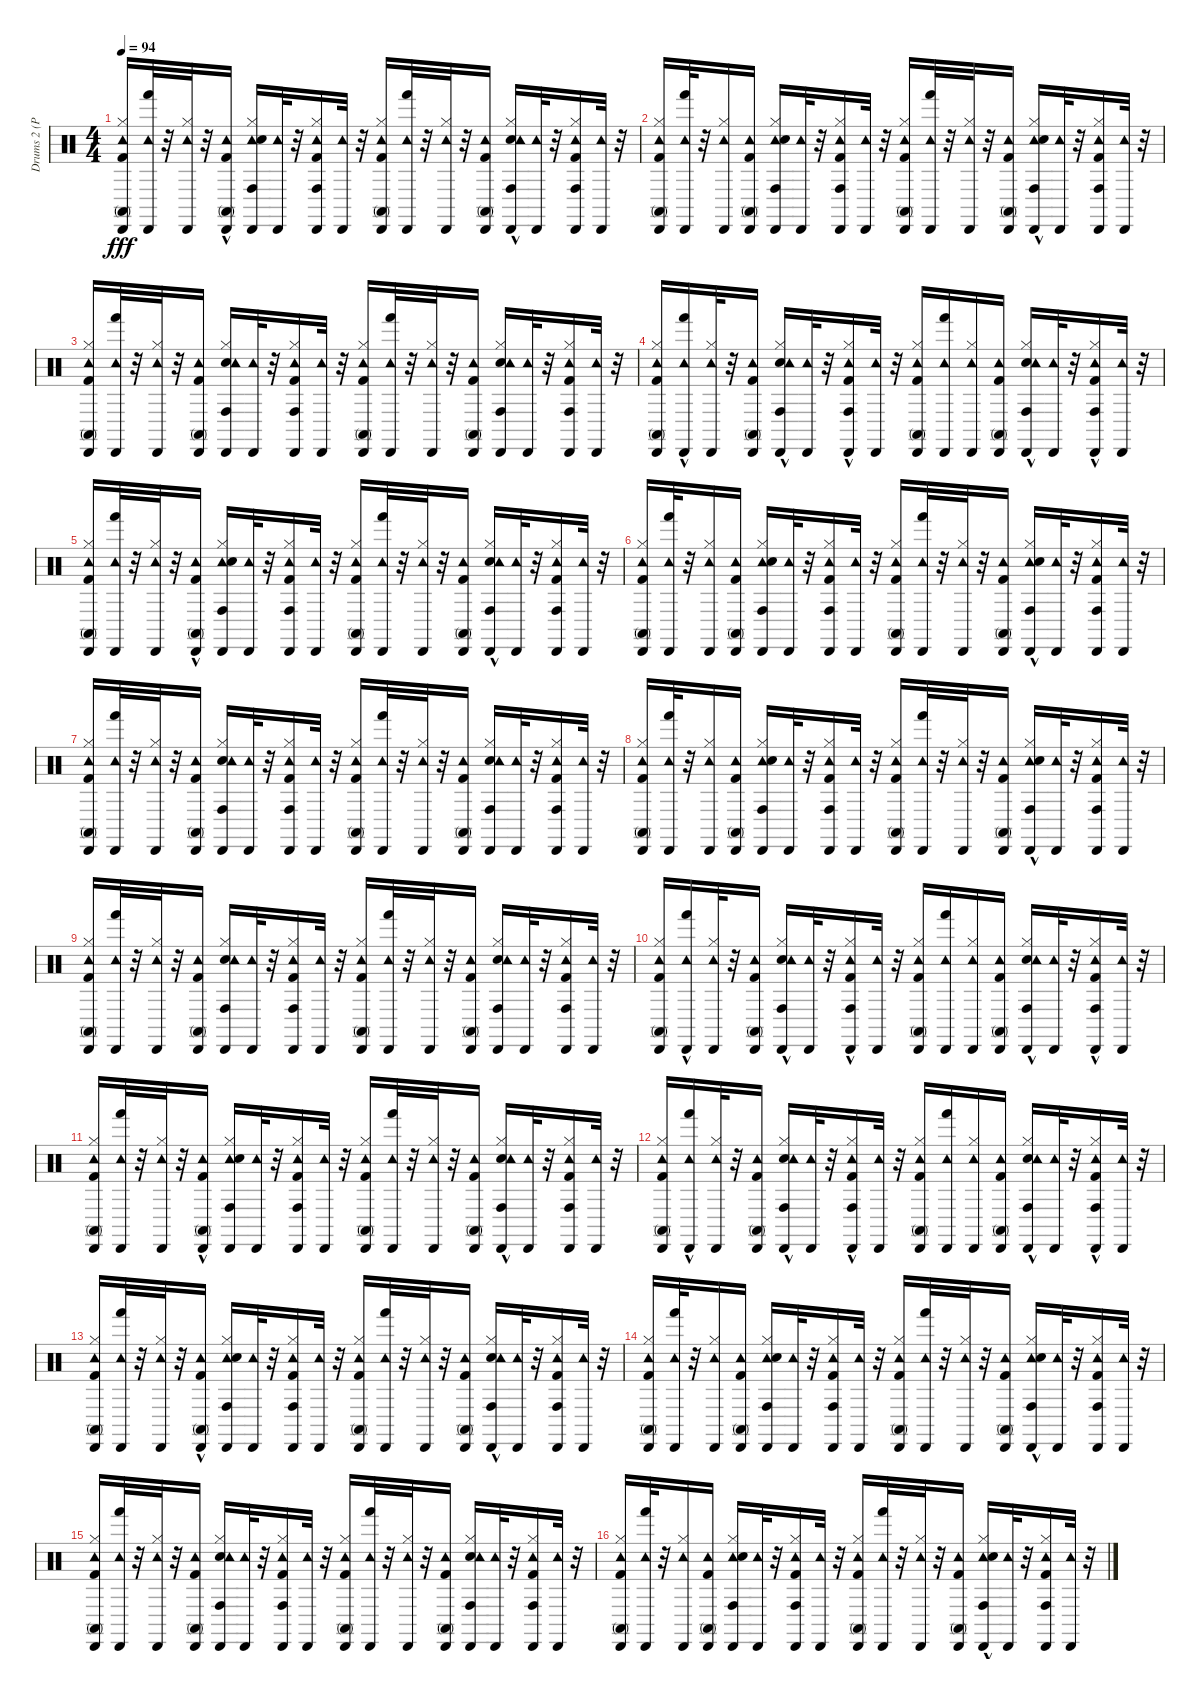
\track ("Drums 2 (Power)" "Drums 2 (P") {instrument percussion}
\staff {score}
\articulation defaults
\ts (4 4)
\tempo 94
\clef neutral
\ks c
("Tambourine (hit)" "Conga high (mute)" "Kick (hit) 2" "Hi-Hat (closed)" "Cabasa (hit)").16{dy fff} ("Tambourine (hit)" "Cabasa (hit)" "Hand (hit)").32 r.32 ("Tambourine (hit)" "Cabasa (hit)" "Hi-Hat (closed)").32 r.32 ("Tambourine (hit)" "Conga high (mute)"{hac} "Cabasa (hit)" "Kick (hit) 2").16 ("Tambourine (hit)" "Cabasa (hit)" "Hi-Hat (closed)" "Snare (hit) 2" "Conga high (hit)").16 ("Tambourine (hit)" "Cabasa (hit)").32 r.32 ("Hi-Hat (closed)" "Kick (hit) 2" "Cabasa (hit)" "Conga high (hit)" "Tambourine (hit)").16 ("Cabasa (hit)" "Tambourine (hit)").32 r.32 ("Cabasa (hit)" "Hi-Hat (closed)" "Kick (hit) 2" "Conga high (mute)" "Tambourine (hit)").16 ("Cabasa (hit)" "Hand (hit)" "Tambourine (hit)").32 r.32 ("Tambourine (hit)" "Cabasa (hit)" "Hi-Hat (closed)").32 r.32 ("Cabasa (hit)" "Kick (hit) 2" "Conga high (mute)" "Tambourine (hit)").16 ("Hi-Hat (closed)" "Snare (hit) 2"{hac} "Cabasa (hit)" "Conga high (hit)" "Tambourine (hit)").16 ("Tambourine (hit)" "Cabasa (hit)").32 r.32 ("Kick (hit) 2" "Hi-Hat (closed)" "Cabasa (hit)" "Conga high (hit)" "Tambourine (hit)").16 ("Cabasa (hit)" "Tambourine (hit)").32 r.32 |
("Kick (hit) 2" "Hi-Hat (closed)" "Conga high (mute)" "Cabasa (hit)" "Tambourine (hit)").16 ("Cabasa (hit)" "Hand (hit)" "Tambourine (hit)").32 r.32 ("Hi-Hat (closed)" "Cabasa (hit)" "Tambourine (hit)").16 ("Conga high (mute)" "Kick (hit) 2" "Cabasa (hit)" "Tambourine (hit)").16 ("Tambourine (hit)" "Hi-Hat (closed)" "Snare (hit) 2" "Cabasa (hit)" "Conga high (hit)").16 ("Cabasa (hit)" "Tambourine (hit)").32 r.32 ("Hi-Hat (closed)" "Kick (hit) 2" "Cabasa (hit)" "Conga high (hit)" "Tambourine (hit)").16 ("Cabasa (hit)" "Tambourine (hit)").32 r.32 ("Hi-Hat (closed)" "Kick (hit) 2" "Cabasa (hit)" "Conga high (mute)" "Tambourine (hit)").16 ("Tambourine (hit)" "Cabasa (hit)" "Hand (hit)").32 r.32 ("Tambourine (hit)" "Cabasa (hit)" "Hi-Hat (closed)").32 r.32 ("Conga high (mute)" "Cabasa (hit)" "Kick (hit) 2" "Tambourine (hit)").16 ("Tambourine (hit)" "Cabasa (hit)" "Hi-Hat (closed)" "Snare (hit) 2"{hac} "Conga high (hit)").16 ("Tambourine (hit)" "Cabasa (hit)").32 r.32 ("Tambourine (hit)" "Cabasa (hit)" "Hi-Hat (closed)" "Kick (hit) 2" "Conga high (hit)").16 ("Tambourine (hit)" "Cabasa (hit)").32 r.32 |
("Kick (hit) 2" "Hi-Hat (closed)" "Conga high (mute)" "Cabasa (hit)" "Tambourine (hit)").16 ("Tambourine (hit)" "Hand (hit)" "Cabasa (hit)").32 r.32 ("Tambourine (hit)" "Cabasa (hit)" "Hi-Hat (closed)").32 r.32 ("Tambourine (hit)" "Cabasa (hit)" "Kick (hit) 2" "Conga high (mute)").16 ("Cabasa (hit)" "Conga high (hit)" "Hi-Hat (closed)" "Snare (hit) 2" "Tambourine (hit)").16 ("Tambourine (hit)" "Cabasa (hit)").32 r.32 ("Tambourine (hit)" "Cabasa (hit)" "Hi-Hat (closed)" "Kick (hit) 2" "Conga high (hit)").16 ("Tambourine (hit)" "Cabasa (hit)").32 r.32 ("Cabasa (hit)" "Hi-Hat (closed)" "Kick (hit) 2" "Conga high (mute)" "Tambourine (hit)").16 ("Cabasa (hit)" "Hand (hit)" "Tambourine (hit)").32 r.32 ("Cabasa (hit)" "Hi-Hat (closed)" "Tambourine (hit)").32 r.32 ("Tambourine (hit)" "Cabasa (hit)" "Conga high (mute)" "Kick (hit) 2").16 ("Cabasa (hit)" "Conga high (hit)" "Hi-Hat (closed)" "Snare (hit) 2" "Tambourine (hit)").16 ("Cabasa (hit)" "Tambourine (hit)").32 r.32 ("Cabasa (hit)" "Kick (hit) 2" "Hi-Hat (closed)" "Conga high (hit)" "Tambourine (hit)").16 ("Tambourine (hit)" "Cabasa (hit)").32 r.32 |
("Hi-Hat (closed)" "Kick (hit) 2" "Cabasa (hit)" "Conga high (mute)" "Tambourine (hit)").16 ("Cabasa (hit)" "Hand (hit)"{hac} "Tambourine (hit)").16 ("Tambourine (hit)" "Cabasa (hit)" "Hi-Hat (closed)").32 r.32 ("Tambourine (hit)" "Cabasa (hit)" "Kick (hit) 2" "Conga high (mute)").16 ("Cabasa (hit)" "Hi-Hat (closed)" "Snare (hit) 2"{hac} "Conga high (hit)" "Tambourine (hit)").16 ("Tambourine (hit)" "Cabasa (hit)").32 r.32 ("Tambourine (hit)" "Cabasa (hit)" "Hi-Hat (closed)" "Kick (hit) 2"{hac} "Conga high (hit)").16 ("Tambourine (hit)" "Cabasa (hit)").32 r.32 ("Tambourine (hit)" "Conga high (mute)" "Cabasa (hit)" "Hi-Hat (closed)" "Kick (hit) 2").16 ("Tambourine (hit)" "Hand (hit)" "Cabasa (hit)").16 ("Hi-Hat (closed)" "Cabasa (hit)" "Tambourine (hit)").16 ("Conga high (mute)" "Cabasa (hit)" "Kick (hit) 2" "Tambourine (hit)").16 ("Cabasa (hit)" "Hi-Hat (closed)" "Snare (hit) 2"{hac} "Conga high (hit)" "Tambourine (hit)").16 ("Cabasa (hit)" "Tambourine (hit)").32 r.32 ("Cabasa (hit)" "Kick (hit) 2"{hac} "Hi-Hat (closed)" "Conga high (hit)" "Tambourine (hit)").16 ("Cabasa (hit)" "Tambourine (hit)").32 r.32 |
("Tambourine (hit)" "Conga high (mute)" "Kick (hit) 2" "Hi-Hat (closed)" "Cabasa (hit)").16 ("Tambourine (hit)" "Cabasa (hit)" "Hand (hit)").32 r.32 ("Tambourine (hit)" "Cabasa (hit)" "Hi-Hat (closed)").32 r.32 ("Tambourine (hit)" "Conga high (mute)"{hac} "Cabasa (hit)" "Kick (hit) 2").16 ("Tambourine (hit)" "Cabasa (hit)" "Hi-Hat (closed)" "Snare (hit) 2" "Conga high (hit)").16 ("Tambourine (hit)" "Cabasa (hit)").32 r.32 ("Hi-Hat (closed)" "Kick (hit) 2" "Cabasa (hit)" "Conga high (hit)" "Tambourine (hit)").16 ("Cabasa (hit)" "Tambourine (hit)").32 r.32 ("Cabasa (hit)" "Hi-Hat (closed)" "Kick (hit) 2" "Conga high (mute)" "Tambourine (hit)").16 ("Cabasa (hit)" "Hand (hit)" "Tambourine (hit)").32 r.32 ("Tambourine (hit)" "Cabasa (hit)" "Hi-Hat (closed)").32 r.32 ("Cabasa (hit)" "Kick (hit) 2" "Conga high (mute)" "Tambourine (hit)").16 ("Hi-Hat (closed)" "Snare (hit) 2"{hac} "Cabasa (hit)" "Conga high (hit)" "Tambourine (hit)").16 ("Tambourine (hit)" "Cabasa (hit)").32 r.32 ("Kick (hit) 2" "Hi-Hat (closed)" "Cabasa (hit)" "Conga high (hit)" "Tambourine (hit)").16 ("Cabasa (hit)" "Tambourine (hit)").32 r.32 |
("Kick (hit) 2" "Hi-Hat (closed)" "Conga high (mute)" "Cabasa (hit)" "Tambourine (hit)").16 ("Cabasa (hit)" "Hand (hit)" "Tambourine (hit)").32 r.32 ("Hi-Hat (closed)" "Cabasa (hit)" "Tambourine (hit)").16 ("Conga high (mute)" "Kick (hit) 2" "Cabasa (hit)" "Tambourine (hit)").16 ("Tambourine (hit)" "Hi-Hat (closed)" "Snare (hit) 2" "Cabasa (hit)" "Conga high (hit)").16 ("Cabasa (hit)" "Tambourine (hit)").32 r.32 ("Hi-Hat (closed)" "Kick (hit) 2" "Cabasa (hit)" "Conga high (hit)" "Tambourine (hit)").16 ("Cabasa (hit)" "Tambourine (hit)").32 r.32 ("Hi-Hat (closed)" "Kick (hit) 2" "Cabasa (hit)" "Conga high (mute)" "Tambourine (hit)").16 ("Tambourine (hit)" "Cabasa (hit)" "Hand (hit)").32 r.32 ("Tambourine (hit)" "Cabasa (hit)" "Hi-Hat (closed)").32 r.32 ("Conga high (mute)" "Cabasa (hit)" "Kick (hit) 2" "Tambourine (hit)").16 ("Tambourine (hit)" "Cabasa (hit)" "Hi-Hat (closed)" "Snare (hit) 2"{hac} "Conga high (hit)").16 ("Tambourine (hit)" "Cabasa (hit)").32 r.32 ("Tambourine (hit)" "Cabasa (hit)" "Hi-Hat (closed)" "Kick (hit) 2" "Conga high (hit)").16 ("Tambourine (hit)" "Cabasa (hit)").32 r.32 |
("Kick (hit) 2" "Hi-Hat (closed)" "Conga high (mute)" "Cabasa (hit)" "Tambourine (hit)").16 ("Tambourine (hit)" "Hand (hit)" "Cabasa (hit)").32 r.32 ("Tambourine (hit)" "Cabasa (hit)" "Hi-Hat (closed)").32 r.32 ("Tambourine (hit)" "Cabasa (hit)" "Kick (hit) 2" "Conga high (mute)").16 ("Cabasa (hit)" "Conga high (hit)" "Hi-Hat (closed)" "Snare (hit) 2" "Tambourine (hit)").16 ("Tambourine (hit)" "Cabasa (hit)").32 r.32 ("Tambourine (hit)" "Cabasa (hit)" "Hi-Hat (closed)" "Kick (hit) 2" "Conga high (hit)").16 ("Tambourine (hit)" "Cabasa (hit)").32 r.32 ("Cabasa (hit)" "Hi-Hat (closed)" "Kick (hit) 2" "Conga high (mute)" "Tambourine (hit)").16 ("Cabasa (hit)" "Hand (hit)" "Tambourine (hit)").32 r.32 ("Cabasa (hit)" "Hi-Hat (closed)" "Tambourine (hit)").32 r.32 ("Tambourine (hit)" "Cabasa (hit)" "Conga high (mute)" "Kick (hit) 2").16 ("Cabasa (hit)" "Conga high (hit)" "Hi-Hat (closed)" "Snare (hit) 2" "Tambourine (hit)").16 ("Cabasa (hit)" "Tambourine (hit)").32 r.32 ("Cabasa (hit)" "Kick (hit) 2" "Hi-Hat (closed)" "Conga high (hit)" "Tambourine (hit)").16 ("Tambourine (hit)" "Cabasa (hit)").32 r.32 |
("Kick (hit) 2" "Hi-Hat (closed)" "Conga high (mute)" "Cabasa (hit)" "Tambourine (hit)").16 ("Cabasa (hit)" "Hand (hit)" "Tambourine (hit)").32 r.32 ("Hi-Hat (closed)" "Cabasa (hit)" "Tambourine (hit)").16 ("Conga high (mute)" "Kick (hit) 2" "Cabasa (hit)" "Tambourine (hit)").16 ("Tambourine (hit)" "Hi-Hat (closed)" "Snare (hit) 2" "Cabasa (hit)" "Conga high (hit)").16 ("Cabasa (hit)" "Tambourine (hit)").32 r.32 ("Hi-Hat (closed)" "Kick (hit) 2" "Cabasa (hit)" "Conga high (hit)" "Tambourine (hit)").16 ("Cabasa (hit)" "Tambourine (hit)").32 r.32 ("Hi-Hat (closed)" "Kick (hit) 2" "Cabasa (hit)" "Conga high (mute)" "Tambourine (hit)").16 ("Tambourine (hit)" "Cabasa (hit)" "Hand (hit)").32 r.32 ("Tambourine (hit)" "Cabasa (hit)" "Hi-Hat (closed)").32 r.32 ("Conga high (mute)" "Cabasa (hit)" "Kick (hit) 2" "Tambourine (hit)").16 ("Tambourine (hit)" "Cabasa (hit)" "Hi-Hat (closed)" "Snare (hit) 2"{hac} "Conga high (hit)").16 ("Tambourine (hit)" "Cabasa (hit)").32 r.32 ("Tambourine (hit)" "Cabasa (hit)" "Hi-Hat (closed)" "Kick (hit) 2" "Conga high (hit)").16 ("Tambourine (hit)" "Cabasa (hit)").32 r.32 |
("Kick (hit) 2" "Hi-Hat (closed)" "Conga high (mute)" "Cabasa (hit)" "Tambourine (hit)").16 ("Tambourine (hit)" "Hand (hit)" "Cabasa (hit)").32 r.32 ("Tambourine (hit)" "Cabasa (hit)" "Hi-Hat (closed)").32 r.32 ("Tambourine (hit)" "Cabasa (hit)" "Kick (hit) 2" "Conga high (mute)").16 ("Cabasa (hit)" "Conga high (hit)" "Hi-Hat (closed)" "Snare (hit) 2" "Tambourine (hit)").16 ("Tambourine (hit)" "Cabasa (hit)").32 r.32 ("Tambourine (hit)" "Cabasa (hit)" "Hi-Hat (closed)" "Kick (hit) 2" "Conga high (hit)").16 ("Tambourine (hit)" "Cabasa (hit)").32 r.32 ("Cabasa (hit)" "Hi-Hat (closed)" "Kick (hit) 2" "Conga high (mute)" "Tambourine (hit)").16 ("Cabasa (hit)" "Hand (hit)" "Tambourine (hit)").32 r.32 ("Cabasa (hit)" "Hi-Hat (closed)" "Tambourine (hit)").32 r.32 ("Tambourine (hit)" "Cabasa (hit)" "Conga high (mute)" "Kick (hit) 2").16 ("Cabasa (hit)" "Conga high (hit)" "Hi-Hat (closed)" "Snare (hit) 2" "Tambourine (hit)").16 ("Cabasa (hit)" "Tambourine (hit)").32 r.32 ("Cabasa (hit)" "Kick (hit) 2" "Hi-Hat (closed)" "Conga high (hit)" "Tambourine (hit)").16 ("Tambourine (hit)" "Cabasa (hit)").32 r.32 |
("Hi-Hat (closed)" "Kick (hit) 2" "Cabasa (hit)" "Conga high (mute)" "Tambourine (hit)").16 ("Cabasa (hit)" "Hand (hit)"{hac} "Tambourine (hit)").16 ("Tambourine (hit)" "Cabasa (hit)" "Hi-Hat (closed)").32 r.32 ("Tambourine (hit)" "Cabasa (hit)" "Kick (hit) 2" "Conga high (mute)").16 ("Cabasa (hit)" "Hi-Hat (closed)" "Snare (hit) 2"{hac} "Conga high (hit)" "Tambourine (hit)").16 ("Tambourine (hit)" "Cabasa (hit)").32 r.32 ("Tambourine (hit)" "Cabasa (hit)" "Hi-Hat (closed)" "Kick (hit) 2"{hac} "Conga high (hit)").16 ("Tambourine (hit)" "Cabasa (hit)").32 r.32 ("Tambourine (hit)" "Conga high (mute)" "Cabasa (hit)" "Hi-Hat (closed)" "Kick (hit) 2").16 ("Tambourine (hit)" "Hand (hit)" "Cabasa (hit)").16 ("Hi-Hat (closed)" "Cabasa (hit)" "Tambourine (hit)").16 ("Conga high (mute)" "Cabasa (hit)" "Kick (hit) 2" "Tambourine (hit)").16 ("Cabasa (hit)" "Hi-Hat (closed)" "Snare (hit) 2"{hac} "Conga high (hit)" "Tambourine (hit)").16 ("Cabasa (hit)" "Tambourine (hit)").32 r.32 ("Cabasa (hit)" "Kick (hit) 2"{hac} "Hi-Hat (closed)" "Conga high (hit)" "Tambourine (hit)").16 ("Cabasa (hit)" "Tambourine (hit)").32 r.32 |
("Tambourine (hit)" "Conga high (mute)" "Kick (hit) 2" "Hi-Hat (closed)" "Cabasa (hit)").16 ("Tambourine (hit)" "Cabasa (hit)" "Hand (hit)").32 r.32 ("Tambourine (hit)" "Cabasa (hit)" "Hi-Hat (closed)").32 r.32 ("Tambourine (hit)" "Conga high (mute)"{hac} "Cabasa (hit)" "Kick (hit) 2").16 ("Tambourine (hit)" "Cabasa (hit)" "Hi-Hat (closed)" "Snare (hit) 2" "Conga high (hit)").16 ("Tambourine (hit)" "Cabasa (hit)").32 r.32 ("Hi-Hat (closed)" "Kick (hit) 2" "Cabasa (hit)" "Conga high (hit)" "Tambourine (hit)").16 ("Cabasa (hit)" "Tambourine (hit)").32 r.32 ("Cabasa (hit)" "Hi-Hat (closed)" "Kick (hit) 2" "Conga high (mute)" "Tambourine (hit)").16 ("Cabasa (hit)" "Hand (hit)" "Tambourine (hit)").32 r.32 ("Tambourine (hit)" "Cabasa (hit)" "Hi-Hat (closed)").32 r.32 ("Cabasa (hit)" "Kick (hit) 2" "Conga high (mute)" "Tambourine (hit)").16 ("Hi-Hat (closed)" "Snare (hit) 2"{hac} "Cabasa (hit)" "Conga high (hit)" "Tambourine (hit)").16 ("Tambourine (hit)" "Cabasa (hit)").32 r.32 ("Kick (hit) 2" "Hi-Hat (closed)" "Cabasa (hit)" "Conga high (hit)" "Tambourine (hit)").16 ("Cabasa (hit)" "Tambourine (hit)").32 r.32 |
("Hi-Hat (closed)" "Kick (hit) 2" "Cabasa (hit)" "Conga high (mute)" "Tambourine (hit)").16 ("Cabasa (hit)" "Hand (hit)"{hac} "Tambourine (hit)").16 ("Tambourine (hit)" "Cabasa (hit)" "Hi-Hat (closed)").32 r.32 ("Tambourine (hit)" "Cabasa (hit)" "Kick (hit) 2" "Conga high (mute)").16 ("Cabasa (hit)" "Hi-Hat (closed)" "Snare (hit) 2"{hac} "Conga high (hit)" "Tambourine (hit)").16 ("Tambourine (hit)" "Cabasa (hit)").32 r.32 ("Tambourine (hit)" "Cabasa (hit)" "Hi-Hat (closed)" "Kick (hit) 2"{hac} "Conga high (hit)").16 ("Tambourine (hit)" "Cabasa (hit)").32 r.32 ("Tambourine (hit)" "Conga high (mute)" "Cabasa (hit)" "Hi-Hat (closed)" "Kick (hit) 2").16 ("Tambourine (hit)" "Hand (hit)" "Cabasa (hit)").16 ("Hi-Hat (closed)" "Cabasa (hit)" "Tambourine (hit)").16 ("Conga high (mute)" "Cabasa (hit)" "Kick (hit) 2" "Tambourine (hit)").16 ("Cabasa (hit)" "Hi-Hat (closed)" "Snare (hit) 2"{hac} "Conga high (hit)" "Tambourine (hit)").16 ("Cabasa (hit)" "Tambourine (hit)").32 r.32 ("Cabasa (hit)" "Kick (hit) 2"{hac} "Hi-Hat (closed)" "Conga high (hit)" "Tambourine (hit)").16 ("Cabasa (hit)" "Tambourine (hit)").32 r.32 |
("Tambourine (hit)" "Conga high (mute)" "Kick (hit) 2" "Hi-Hat (closed)" "Cabasa (hit)").16 ("Tambourine (hit)" "Cabasa (hit)" "Hand (hit)").32 r.32 ("Tambourine (hit)" "Cabasa (hit)" "Hi-Hat (closed)").32 r.32 ("Tambourine (hit)" "Conga high (mute)"{hac} "Cabasa (hit)" "Kick (hit) 2").16 ("Tambourine (hit)" "Cabasa (hit)" "Hi-Hat (closed)" "Snare (hit) 2" "Conga high (hit)").16 ("Tambourine (hit)" "Cabasa (hit)").32 r.32 ("Hi-Hat (closed)" "Kick (hit) 2" "Cabasa (hit)" "Conga high (hit)" "Tambourine (hit)").16 ("Cabasa (hit)" "Tambourine (hit)").32 r.32 ("Cabasa (hit)" "Hi-Hat (closed)" "Kick (hit) 2" "Conga high (mute)" "Tambourine (hit)").16 ("Cabasa (hit)" "Hand (hit)" "Tambourine (hit)").32 r.32 ("Tambourine (hit)" "Cabasa (hit)" "Hi-Hat (closed)").32 r.32 ("Cabasa (hit)" "Kick (hit) 2" "Conga high (mute)" "Tambourine (hit)").16 ("Hi-Hat (closed)" "Snare (hit) 2"{hac} "Cabasa (hit)" "Conga high (hit)" "Tambourine (hit)").16 ("Tambourine (hit)" "Cabasa (hit)").32 r.32 ("Kick (hit) 2" "Hi-Hat (closed)" "Cabasa (hit)" "Conga high (hit)" "Tambourine (hit)").16 ("Cabasa (hit)" "Tambourine (hit)").32 r.32 |
("Kick (hit) 2" "Hi-Hat (closed)" "Conga high (mute)" "Cabasa (hit)" "Tambourine (hit)").16 ("Cabasa (hit)" "Hand (hit)" "Tambourine (hit)").32 r.32 ("Hi-Hat (closed)" "Cabasa (hit)" "Tambourine (hit)").16 ("Conga high (mute)" "Kick (hit) 2" "Cabasa (hit)" "Tambourine (hit)").16 ("Tambourine (hit)" "Hi-Hat (closed)" "Snare (hit) 2" "Cabasa (hit)" "Conga high (hit)").16 ("Cabasa (hit)" "Tambourine (hit)").32 r.32 ("Hi-Hat (closed)" "Kick (hit) 2" "Cabasa (hit)" "Conga high (hit)" "Tambourine (hit)").16 ("Cabasa (hit)" "Tambourine (hit)").32 r.32 ("Hi-Hat (closed)" "Kick (hit) 2" "Cabasa (hit)" "Conga high (mute)" "Tambourine (hit)").16 ("Tambourine (hit)" "Cabasa (hit)" "Hand (hit)").32 r.32 ("Tambourine (hit)" "Cabasa (hit)" "Hi-Hat (closed)").32 r.32 ("Conga high (mute)" "Cabasa (hit)" "Kick (hit) 2" "Tambourine (hit)").16 ("Tambourine (hit)" "Cabasa (hit)" "Hi-Hat (closed)" "Snare (hit) 2"{hac} "Conga high (hit)").16 ("Tambourine (hit)" "Cabasa (hit)").32 r.32 ("Tambourine (hit)" "Cabasa (hit)" "Hi-Hat (closed)" "Kick (hit) 2" "Conga high (hit)").16 ("Tambourine (hit)" "Cabasa (hit)").32 r.32 |
("Kick (hit) 2" "Hi-Hat (closed)" "Conga high (mute)" "Cabasa (hit)" "Tambourine (hit)").16 ("Tambourine (hit)" "Hand (hit)" "Cabasa (hit)").32 r.32 ("Tambourine (hit)" "Cabasa (hit)" "Hi-Hat (closed)").32 r.32 ("Tambourine (hit)" "Cabasa (hit)" "Kick (hit) 2" "Conga high (mute)").16 ("Cabasa (hit)" "Conga high (hit)" "Hi-Hat (closed)" "Snare (hit) 2" "Tambourine (hit)").16 ("Tambourine (hit)" "Cabasa (hit)").32 r.32 ("Tambourine (hit)" "Cabasa (hit)" "Hi-Hat (closed)" "Kick (hit) 2" "Conga high (hit)").16 ("Tambourine (hit)" "Cabasa (hit)").32 r.32 ("Cabasa (hit)" "Hi-Hat (closed)" "Kick (hit) 2" "Conga high (mute)" "Tambourine (hit)").16 ("Cabasa (hit)" "Hand (hit)" "Tambourine (hit)").32 r.32 ("Cabasa (hit)" "Hi-Hat (closed)" "Tambourine (hit)").32 r.32 ("Tambourine (hit)" "Cabasa (hit)" "Conga high (mute)" "Kick (hit) 2").16 ("Cabasa (hit)" "Conga high (hit)" "Hi-Hat (closed)" "Snare (hit) 2" "Tambourine (hit)").16 ("Cabasa (hit)" "Tambourine (hit)").32 r.32 ("Cabasa (hit)" "Kick (hit) 2" "Hi-Hat (closed)" "Conga high (hit)" "Tambourine (hit)").16 ("Tambourine (hit)" "Cabasa (hit)").32 r.32 |
("Kick (hit) 2" "Hi-Hat (closed)" "Conga high (mute)" "Cabasa (hit)" "Tambourine (hit)").16 ("Cabasa (hit)" "Hand (hit)" "Tambourine (hit)").32 r.32 ("Hi-Hat (closed)" "Cabasa (hit)" "Tambourine (hit)").16 ("Conga high (mute)" "Kick (hit) 2" "Cabasa (hit)" "Tambourine (hit)").16 ("Tambourine (hit)" "Hi-Hat (closed)" "Snare (hit) 2" "Cabasa (hit)" "Conga high (hit)").16 ("Cabasa (hit)" "Tambourine (hit)").32 r.32 ("Hi-Hat (closed)" "Kick (hit) 2" "Cabasa (hit)" "Conga high (hit)" "Tambourine (hit)").16 ("Cabasa (hit)" "Tambourine (hit)").32 r.32 ("Hi-Hat (closed)" "Kick (hit) 2" "Cabasa (hit)" "Conga high (mute)" "Tambourine (hit)").16 ("Tambourine (hit)" "Cabasa (hit)" "Hand (hit)").32 r.32 ("Tambourine (hit)" "Cabasa (hit)" "Hi-Hat (closed)").32 r.32 ("Conga high (mute)" "Cabasa (hit)" "Kick (hit) 2" "Tambourine (hit)").16 ("Tambourine (hit)" "Cabasa (hit)" "Hi-Hat (closed)" "Snare (hit) 2"{hac} "Conga high (hit)").16 ("Tambourine (hit)" "Cabasa (hit)").32 r.32 ("Tambourine (hit)" "Cabasa (hit)" "Hi-Hat (closed)" "Kick (hit) 2" "Conga high (hit)").16 ("Tambourine (hit)" "Cabasa (hit)").32 r.32
